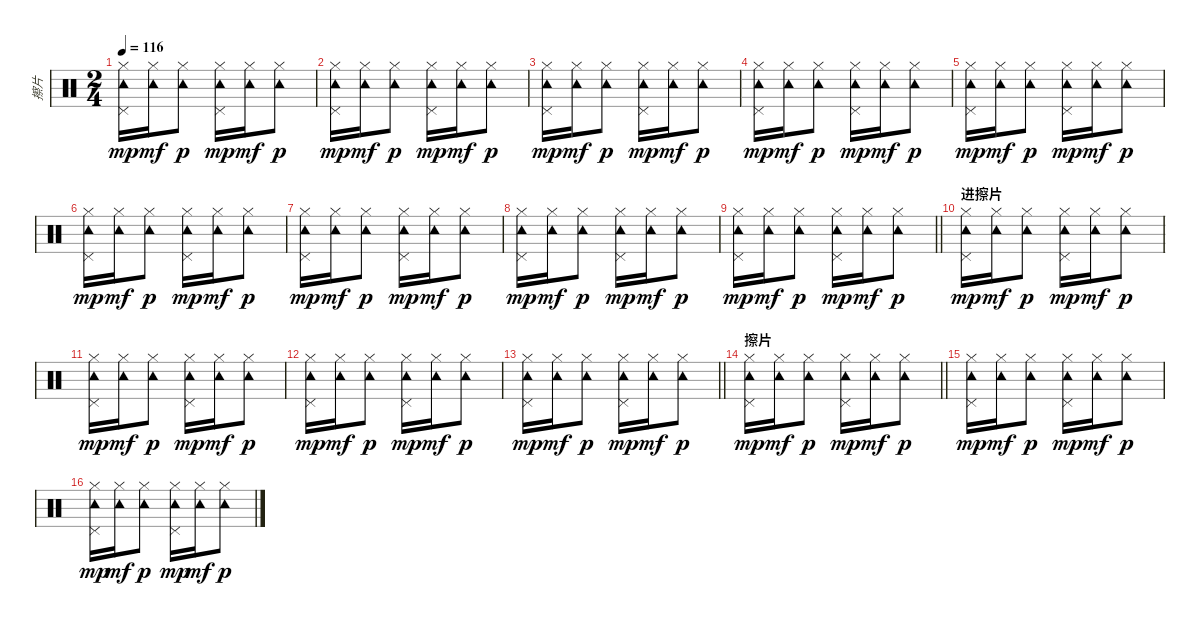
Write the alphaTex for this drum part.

\track ("擦片" "擦片") {instrument percussion}
\staff {score}
\articulation defaults
\ts (2 4)
\tempo 116
\clef neutral
\ks c
("Hi-Hat (closed)" "Tambourine (hit)" "Pedal Hi-Hat (hit)").16{dy mp} ("Hi-Hat (closed)" "Tambourine (hit)").16{dy mf} ("Hi-Hat (closed)" "Tambourine (hit)").8{dy p} ("Hi-Hat (closed)" "Tambourine (hit)" "Pedal Hi-Hat (hit)").16{dy mp} ("Hi-Hat (closed)" "Tambourine (hit)").16{dy mf} ("Hi-Hat (closed)" "Tambourine (hit)").8{dy p} |
("Hi-Hat (closed)" "Tambourine (hit)" "Pedal Hi-Hat (hit)").16{dy mp} ("Hi-Hat (closed)" "Tambourine (hit)").16{dy mf} ("Hi-Hat (closed)" "Tambourine (hit)").8{dy p} ("Hi-Hat (closed)" "Tambourine (hit)" "Pedal Hi-Hat (hit)").16{dy mp} ("Hi-Hat (closed)" "Tambourine (hit)").16{dy mf} ("Hi-Hat (closed)" "Tambourine (hit)").8{dy p} |
("Hi-Hat (closed)" "Tambourine (hit)" "Pedal Hi-Hat (hit)").16{dy mp} ("Hi-Hat (closed)" "Tambourine (hit)").16{dy mf} ("Hi-Hat (closed)" "Tambourine (hit)").8{dy p} ("Hi-Hat (closed)" "Tambourine (hit)" "Pedal Hi-Hat (hit)").16{dy mp} ("Hi-Hat (closed)" "Tambourine (hit)").16{dy mf} ("Hi-Hat (closed)" "Tambourine (hit)").8{dy p} |
("Hi-Hat (closed)" "Tambourine (hit)" "Pedal Hi-Hat (hit)").16{dy mp} ("Hi-Hat (closed)" "Tambourine (hit)").16{dy mf} ("Hi-Hat (closed)" "Tambourine (hit)").8{dy p} ("Hi-Hat (closed)" "Tambourine (hit)" "Pedal Hi-Hat (hit)").16{dy mp} ("Hi-Hat (closed)" "Tambourine (hit)").16{dy mf} ("Hi-Hat (closed)" "Tambourine (hit)").8{dy p} |
("Hi-Hat (closed)" "Tambourine (hit)" "Pedal Hi-Hat (hit)").16{dy mp} ("Hi-Hat (closed)" "Tambourine (hit)").16{dy mf} ("Hi-Hat (closed)" "Tambourine (hit)").8{dy p} ("Hi-Hat (closed)" "Tambourine (hit)" "Pedal Hi-Hat (hit)").16{dy mp} ("Hi-Hat (closed)" "Tambourine (hit)").16{dy mf} ("Hi-Hat (closed)" "Tambourine (hit)").8{dy p} |
("Hi-Hat (closed)" "Tambourine (hit)" "Pedal Hi-Hat (hit)").16{dy mp} ("Hi-Hat (closed)" "Tambourine (hit)").16{dy mf} ("Hi-Hat (closed)" "Tambourine (hit)").8{dy p} ("Hi-Hat (closed)" "Tambourine (hit)" "Pedal Hi-Hat (hit)").16{dy mp} ("Hi-Hat (closed)" "Tambourine (hit)").16{dy mf} ("Hi-Hat (closed)" "Tambourine (hit)").8{dy p} |
("Hi-Hat (closed)" "Tambourine (hit)" "Pedal Hi-Hat (hit)").16{dy mp} ("Hi-Hat (closed)" "Tambourine (hit)").16{dy mf} ("Hi-Hat (closed)" "Tambourine (hit)").8{dy p} ("Hi-Hat (closed)" "Tambourine (hit)" "Pedal Hi-Hat (hit)").16{dy mp} ("Hi-Hat (closed)" "Tambourine (hit)").16{dy mf} ("Hi-Hat (closed)" "Tambourine (hit)").8{dy p} |
("Hi-Hat (closed)" "Tambourine (hit)" "Pedal Hi-Hat (hit)").16{dy mp} ("Hi-Hat (closed)" "Tambourine (hit)").16{dy mf} ("Hi-Hat (closed)" "Tambourine (hit)").8{dy p} ("Hi-Hat (closed)" "Tambourine (hit)" "Pedal Hi-Hat (hit)").16{dy mp} ("Hi-Hat (closed)" "Tambourine (hit)").16{dy mf} ("Hi-Hat (closed)" "Tambourine (hit)").8{dy p} |
\barLineRight lightlight
("Hi-Hat (closed)" "Tambourine (hit)" "Pedal Hi-Hat (hit)").16{dy mp} ("Hi-Hat (closed)" "Tambourine (hit)").16{dy mf} ("Hi-Hat (closed)" "Tambourine (hit)").8{dy p} ("Hi-Hat (closed)" "Tambourine (hit)" "Pedal Hi-Hat (hit)").16{dy mp} ("Hi-Hat (closed)" "Tambourine (hit)").16{dy mf} ("Hi-Hat (closed)" "Tambourine (hit)").8{dy p} |
\section ("" "进擦片")
("Hi-Hat (closed)" "Tambourine (hit)" "Pedal Hi-Hat (hit)").16{dy mp} ("Hi-Hat (closed)" "Tambourine (hit)").16{dy mf} ("Hi-Hat (closed)" "Tambourine (hit)").8{dy p} ("Hi-Hat (closed)" "Tambourine (hit)" "Pedal Hi-Hat (hit)").16{dy mp} ("Hi-Hat (closed)" "Tambourine (hit)").16{dy mf} ("Hi-Hat (closed)" "Tambourine (hit)").8{dy p} |
("Hi-Hat (closed)" "Tambourine (hit)" "Pedal Hi-Hat (hit)").16{dy mp} ("Hi-Hat (closed)" "Tambourine (hit)").16{dy mf} ("Hi-Hat (closed)" "Tambourine (hit)").8{dy p} ("Hi-Hat (closed)" "Tambourine (hit)" "Pedal Hi-Hat (hit)").16{dy mp} ("Hi-Hat (closed)" "Tambourine (hit)").16{dy mf} ("Hi-Hat (closed)" "Tambourine (hit)").8{dy p} |
("Hi-Hat (closed)" "Tambourine (hit)" "Pedal Hi-Hat (hit)").16{dy mp} ("Hi-Hat (closed)" "Tambourine (hit)").16{dy mf} ("Hi-Hat (closed)" "Tambourine (hit)").8{dy p} ("Hi-Hat (closed)" "Tambourine (hit)" "Pedal Hi-Hat (hit)").16{dy mp} ("Hi-Hat (closed)" "Tambourine (hit)").16{dy mf} ("Hi-Hat (closed)" "Tambourine (hit)").8{dy p} |
\barLineRight lightlight
("Hi-Hat (closed)" "Tambourine (hit)" "Pedal Hi-Hat (hit)").16{dy mp} ("Hi-Hat (closed)" "Tambourine (hit)").16{dy mf} ("Hi-Hat (closed)" "Tambourine (hit)").8{dy p} ("Hi-Hat (closed)" "Tambourine (hit)" "Pedal Hi-Hat (hit)").16{dy mp} ("Hi-Hat (closed)" "Tambourine (hit)").16{dy mf} ("Hi-Hat (closed)" "Tambourine (hit)").8{dy p} |
\section ("" "擦片")
\barLineRight lightlight
("Hi-Hat (closed)" "Tambourine (hit)" "Pedal Hi-Hat (hit)").16{dy mp} ("Hi-Hat (closed)" "Tambourine (hit)").16{dy mf} ("Hi-Hat (closed)" "Tambourine (hit)").8{dy p} ("Hi-Hat (closed)" "Tambourine (hit)" "Pedal Hi-Hat (hit)").16{dy mp} ("Hi-Hat (closed)" "Tambourine (hit)").16{dy mf} ("Hi-Hat (closed)" "Tambourine (hit)").8{dy p} |
("Hi-Hat (closed)" "Tambourine (hit)" "Pedal Hi-Hat (hit)").16{dy mp} ("Hi-Hat (closed)" "Tambourine (hit)").16{dy mf} ("Hi-Hat (closed)" "Tambourine (hit)").8{dy p} ("Hi-Hat (closed)" "Tambourine (hit)" "Pedal Hi-Hat (hit)").16{dy mp} ("Hi-Hat (closed)" "Tambourine (hit)").16{dy mf} ("Hi-Hat (closed)" "Tambourine (hit)").8{dy p} |
("Hi-Hat (closed)" "Tambourine (hit)" "Pedal Hi-Hat (hit)").16{dy mp} ("Hi-Hat (closed)" "Tambourine (hit)").16{dy mf} ("Hi-Hat (closed)" "Tambourine (hit)").8{dy p} ("Hi-Hat (closed)" "Tambourine (hit)" "Pedal Hi-Hat (hit)").16{dy mp} ("Hi-Hat (closed)" "Tambourine (hit)").16{dy mf} ("Hi-Hat (closed)" "Tambourine (hit)").8{dy p}
